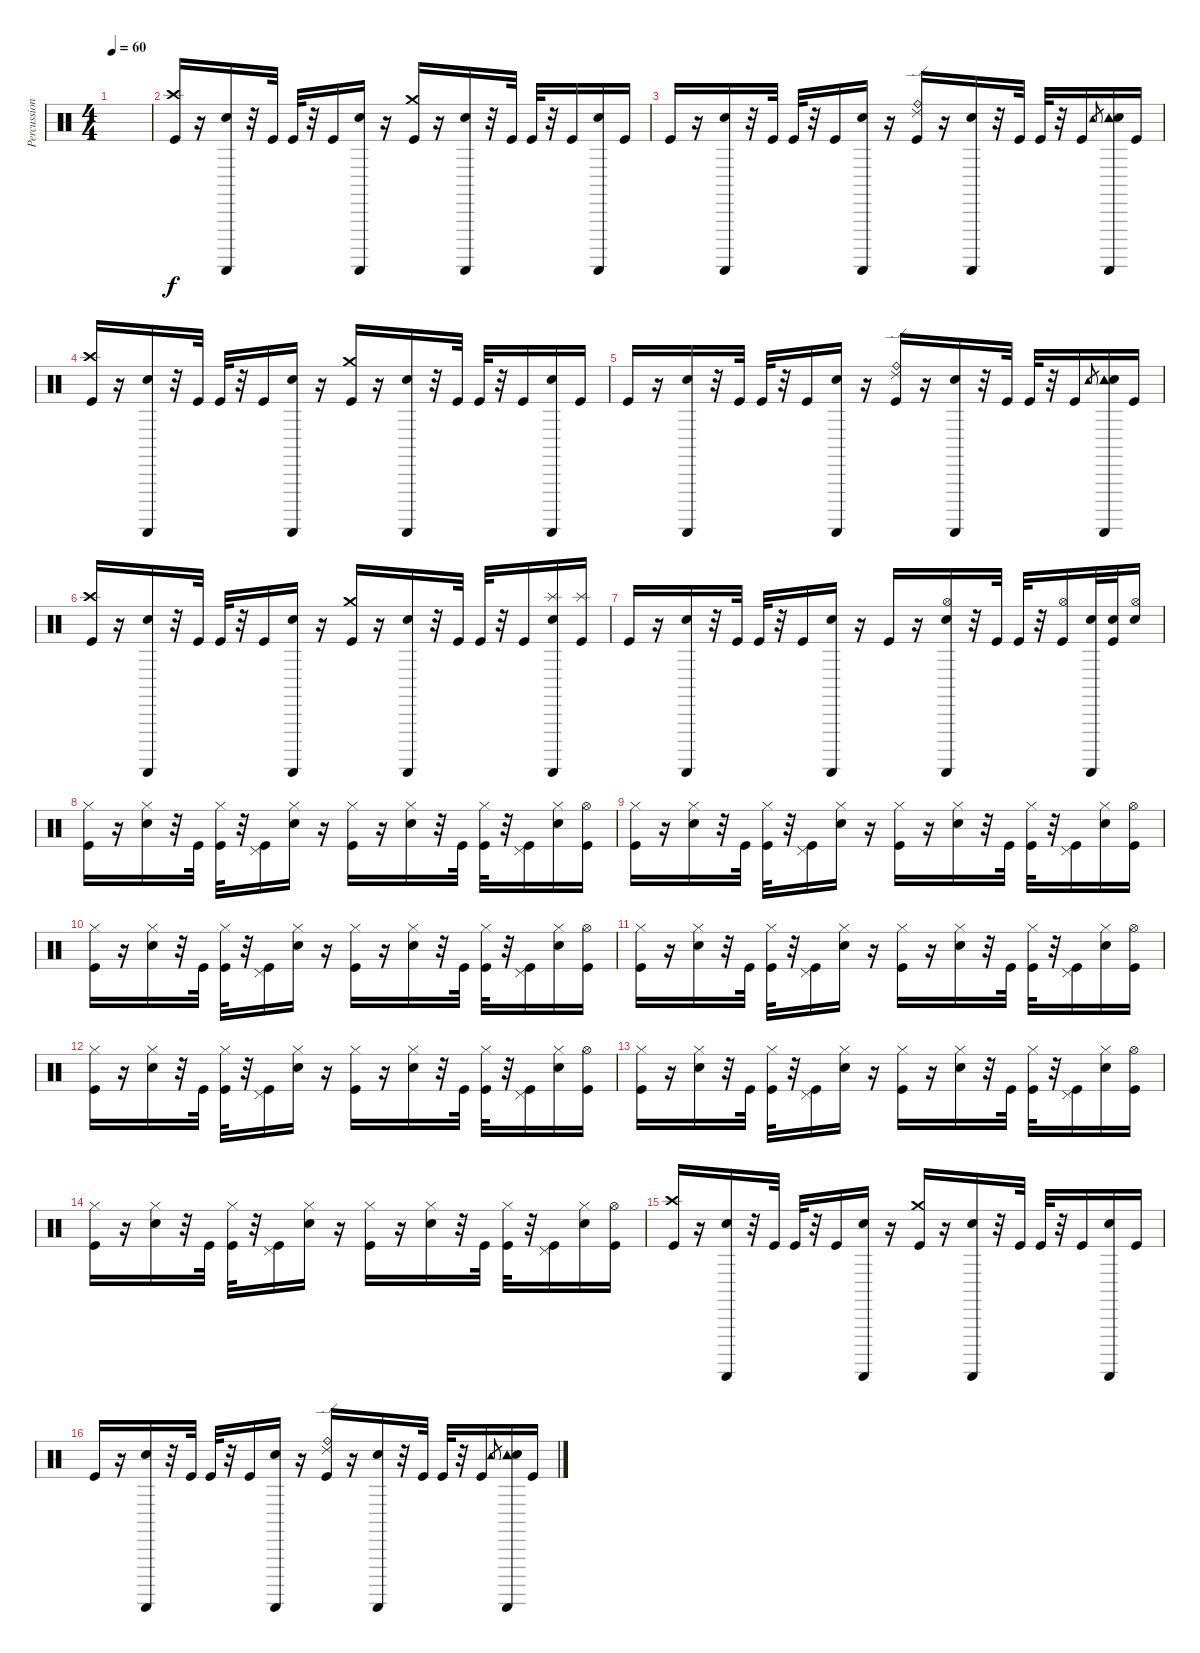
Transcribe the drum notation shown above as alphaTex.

\track ("Percussions" "Percussion") {instrument percussion}
\staff {score}
\articulation defaults
\ts (4 4)
\tempo 60
\clef neutral
\ks c
|
("Crash high (hit)" "Kick (hit)").16 r.16 ("Guiro (scrap-return)" "Electric Snare (hit)").16 r.32 "Kick (hit)".32 "Kick (hit)".32 r.32 "Kick (hit)".16 ("Guiro (scrap-return)" "Electric Snare (hit)").16 r.16 ("Crash medium (hit)" "Kick (hit)").16 r.16 ("Guiro (scrap-return)" "Electric Snare (hit)").16 r.32 "Kick (hit)".32 "Kick (hit)".32 r.32 "Kick (hit)".16 ("Guiro (scrap-return)" "Electric Snare (hit)").16 "Kick (hit)".16 |
"Kick (hit)".16 r.16 ("Guiro (scrap-return)" "Electric Snare (hit)").16 r.32 "Kick (hit)".32 "Kick (hit)".32 r.32 "Kick (hit)".16 ("Guiro (scrap-return)" "Electric Snare (hit)").16 r.16 ("Ride (bell)" "Ride (edge) 2" "Kick (hit)").16 r.16 ("Guiro (scrap-return)" "Electric Snare (hit)").16 r.32 "Kick (hit)".32 "Kick (hit)".32 r.32 "Kick (hit)".16 "Tambourine (hit)".8{gr} ("Tambourine (hit)" "Guiro (scrap-return)" "Electric Snare (hit)").16 "Kick (hit)".16 |
("Crash high (hit)" "Kick (hit)").16 r.16 ("Guiro (scrap-return)" "Electric Snare (hit)").16 r.32 "Kick (hit)".32 "Kick (hit)".32 r.32 "Kick (hit)".16 ("Guiro (scrap-return)" "Electric Snare (hit)").16 r.16 ("Crash medium (hit)" "Kick (hit)").16 r.16 ("Guiro (scrap-return)" "Electric Snare (hit)").16 r.32 "Kick (hit)".32 "Kick (hit)".32 r.32 "Kick (hit)".16 ("Guiro (scrap-return)" "Electric Snare (hit)").16 "Kick (hit)".16 |
"Kick (hit)".16 r.16 ("Guiro (scrap-return)" "Electric Snare (hit)").16 r.32 "Kick (hit)".32 "Kick (hit)".32 r.32 "Kick (hit)".16 ("Guiro (scrap-return)" "Electric Snare (hit)").16 r.16 ("Ride (bell)" "Ride (edge) 2" "Kick (hit)").16 r.16 ("Guiro (scrap-return)" "Electric Snare (hit)").16 r.32 "Kick (hit)".32 "Kick (hit)".32 r.32 "Kick (hit)".16 "Tambourine (hit)".8{gr} ("Tambourine (hit)" "Guiro (scrap-return)" "Electric Snare (hit)").16 "Kick (hit)".16 |
("Crash high (hit)" "Kick (hit)").16 r.16 ("Guiro (scrap-return)" "Electric Snare (hit)").16 r.32 "Kick (hit)".32 "Kick (hit)".32 r.32 "Kick (hit)".16 ("Guiro (scrap-return)" "Electric Snare (hit)").16 r.16 ("Crash medium (hit)" "Kick (hit)").16 r.16 ("Guiro (scrap-return)" "Electric Snare (hit)").16 r.32 "Kick (hit)".32 "Kick (hit)".32 r.32 "Kick (hit)".16 ("Splash (hit)" "Guiro (scrap-return)" "Electric Snare (hit)").16 ("Splash (hit)" "Kick (hit)").16 |
"Kick (hit)".16 r.16 ("Guiro (scrap-return)" "Electric Snare (hit)").16 r.32 "Kick (hit)".32 "Kick (hit)".32 r.32 "Kick (hit)".16 ("Guiro (scrap-return)" "Electric Snare (hit)").16 r.16 "Kick (hit)".16 r.16 ("Hi-Hat (open)" "Guiro (scrap-return)" "Electric Snare (hit)").16 r.32 "Kick (hit)".32 "Kick (hit)".32 r.32 ("Hi-Hat (open)" "Kick (hit)").16 ("Guiro (scrap-return)" "Electric Snare (hit)").32 ("Electric Snare (hit)" "Kick (hit)").32 ("Hi-Hat (open)" "Snare (hit) 2").16 |
("Hi-Hat (closed)" "Kick (hit)").16 r.16 ("Hi-Hat (closed)" "Electric Snare (hit)").16 r.32 "Kick (hit)".32 ("Hi-Hat (closed)" "Kick (hit)").32 r.32 ("Pedal Hi-Hat (hit)" "Kick (hit)").16 ("Hi-Hat (closed)" "Electric Snare (hit)").16 r.16 ("Hi-Hat (closed)" "Kick (hit)").16 r.16 ("Hi-Hat (closed)" "Electric Snare (hit)").16 r.32 "Kick (hit)".32 ("Hi-Hat (closed)" "Kick (hit)").32 r.32 ("Pedal Hi-Hat (hit)" "Kick (hit)").16 ("Hi-Hat (closed)" "Electric Snare (hit)").16 ("Hi-Hat (open)" "Kick (hit)").16 |
("Hi-Hat (closed)" "Kick (hit)").16 r.16 ("Hi-Hat (closed)" "Electric Snare (hit)").16 r.32 "Kick (hit)".32 ("Hi-Hat (closed)" "Kick (hit)").32 r.32 ("Pedal Hi-Hat (hit)" "Kick (hit)").16 ("Hi-Hat (closed)" "Electric Snare (hit)").16 r.16 ("Hi-Hat (closed)" "Kick (hit)").16 r.16 ("Hi-Hat (closed)" "Electric Snare (hit)").16 r.32 "Kick (hit)".32 ("Hi-Hat (closed)" "Kick (hit)").32 r.32 ("Pedal Hi-Hat (hit)" "Kick (hit)").16 ("Hi-Hat (closed)" "Electric Snare (hit)").16 ("Hi-Hat (open)" "Kick (hit)").16 |
("Hi-Hat (closed)" "Kick (hit)").16 r.16 ("Hi-Hat (closed)" "Electric Snare (hit)").16 r.32 "Kick (hit)".32 ("Hi-Hat (closed)" "Kick (hit)").32 r.32 ("Pedal Hi-Hat (hit)" "Kick (hit)").16 ("Hi-Hat (closed)" "Electric Snare (hit)").16 r.16 ("Hi-Hat (closed)" "Kick (hit)").16 r.16 ("Hi-Hat (closed)" "Electric Snare (hit)").16 r.32 "Kick (hit)".32 ("Hi-Hat (closed)" "Kick (hit)").32 r.32 ("Pedal Hi-Hat (hit)" "Kick (hit)").16 ("Hi-Hat (closed)" "Electric Snare (hit)").16 ("Hi-Hat (open)" "Kick (hit)").16 |
("Hi-Hat (closed)" "Kick (hit)").16 r.16 ("Hi-Hat (closed)" "Electric Snare (hit)").16 r.32 "Kick (hit)".32 ("Hi-Hat (closed)" "Kick (hit)").32 r.32 ("Pedal Hi-Hat (hit)" "Kick (hit)").16 ("Hi-Hat (closed)" "Electric Snare (hit)").16 r.16 ("Hi-Hat (closed)" "Kick (hit)").16 r.16 ("Hi-Hat (closed)" "Electric Snare (hit)").16 r.32 "Kick (hit)".32 ("Hi-Hat (closed)" "Kick (hit)").32 r.32 ("Pedal Hi-Hat (hit)" "Kick (hit)").16 ("Hi-Hat (closed)" "Electric Snare (hit)").16 ("Hi-Hat (open)" "Kick (hit)").16 |
("Hi-Hat (closed)" "Kick (hit)").16 r.16 ("Hi-Hat (closed)" "Electric Snare (hit)").16 r.32 "Kick (hit)".32 ("Hi-Hat (closed)" "Kick (hit)").32 r.32 ("Pedal Hi-Hat (hit)" "Kick (hit)").16 ("Hi-Hat (closed)" "Electric Snare (hit)").16 r.16 ("Hi-Hat (closed)" "Kick (hit)").16 r.16 ("Hi-Hat (closed)" "Electric Snare (hit)").16 r.32 "Kick (hit)".32 ("Hi-Hat (closed)" "Kick (hit)").32 r.32 ("Pedal Hi-Hat (hit)" "Kick (hit)").16 ("Hi-Hat (closed)" "Electric Snare (hit)").16 ("Hi-Hat (open)" "Kick (hit)").16 |
("Hi-Hat (closed)" "Kick (hit)").16 r.16 ("Hi-Hat (closed)" "Electric Snare (hit)").16 r.32 "Kick (hit)".32 ("Hi-Hat (closed)" "Kick (hit)").32 r.32 ("Pedal Hi-Hat (hit)" "Kick (hit)").16 ("Hi-Hat (closed)" "Electric Snare (hit)").16 r.16 ("Hi-Hat (closed)" "Kick (hit)").16 r.16 ("Hi-Hat (closed)" "Electric Snare (hit)").16 r.32 "Kick (hit)".32 ("Hi-Hat (closed)" "Kick (hit)").32 r.32 ("Pedal Hi-Hat (hit)" "Kick (hit)").16 ("Hi-Hat (closed)" "Electric Snare (hit)").16 ("Hi-Hat (open)" "Kick (hit)").16 |
("Hi-Hat (closed)" "Kick (hit)").16 r.16 ("Hi-Hat (closed)" "Electric Snare (hit)").16 r.32 "Kick (hit)".32 ("Hi-Hat (closed)" "Kick (hit)").32 r.32 ("Pedal Hi-Hat (hit)" "Kick (hit)").16 ("Hi-Hat (closed)" "Electric Snare (hit)").16 r.16 ("Hi-Hat (closed)" "Kick (hit)").16 r.16 ("Hi-Hat (closed)" "Electric Snare (hit)").16 r.32 "Kick (hit)".32 ("Hi-Hat (closed)" "Kick (hit)").32 r.32 ("Pedal Hi-Hat (hit)" "Kick (hit)").16 ("Hi-Hat (closed)" "Electric Snare (hit)").16 ("Hi-Hat (open)" "Kick (hit)").16 |
("Crash high (hit)" "Kick (hit)").16 r.16 ("Guiro (scrap-return)" "Electric Snare (hit)").16 r.32 "Kick (hit)".32 "Kick (hit)".32 r.32 "Kick (hit)".16 ("Guiro (scrap-return)" "Electric Snare (hit)").16 r.16 ("Crash medium (hit)" "Kick (hit)").16 r.16 ("Guiro (scrap-return)" "Electric Snare (hit)").16 r.32 "Kick (hit)".32 "Kick (hit)".32 r.32 "Kick (hit)".16 ("Guiro (scrap-return)" "Electric Snare (hit)").16 "Kick (hit)".16 |
"Kick (hit)".16 r.16 ("Guiro (scrap-return)" "Electric Snare (hit)").16 r.32 "Kick (hit)".32 "Kick (hit)".32 r.32 "Kick (hit)".16 ("Guiro (scrap-return)" "Electric Snare (hit)").16 r.16 ("Ride (bell)" "Ride (edge) 2" "Kick (hit)").16 r.16 ("Guiro (scrap-return)" "Electric Snare (hit)").16 r.32 "Kick (hit)".32 "Kick (hit)".32 r.32 "Kick (hit)".16 "Tambourine (hit)".8{gr} ("Tambourine (hit)" "Guiro (scrap-return)" "Electric Snare (hit)").16 "Kick (hit)".16
